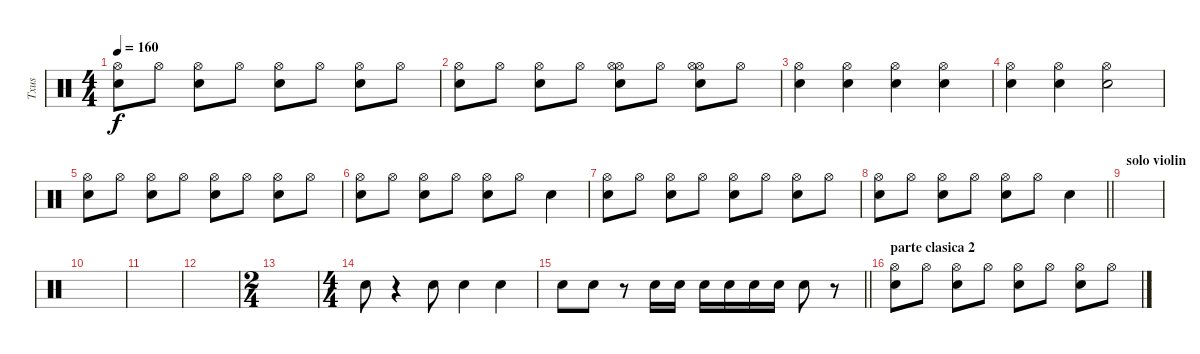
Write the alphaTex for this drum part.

\track ("Txus" "Txus") {instrument percussion}
\staff {score}
\articulation defaults
\ts (4 4)
\tempo 160
\clef neutral
\ks c
("Hi-Hat (open)" "Snare (hit) 2").8{dy f} "Hi-Hat (open)".8 ("Hi-Hat (open)" "Snare (hit) 2").8 "Hi-Hat (open)".8 ("Hi-Hat (open)" "Snare (hit) 2").8 "Hi-Hat (open)".8 ("Hi-Hat (open)" "Snare (hit) 2").8 "Hi-Hat (open)".8 |
("Hi-Hat (open)" "Snare (hit) 2").8 "Hi-Hat (open)".8 ("Hi-Hat (open)" "Snare (hit) 2").8 "Hi-Hat (open)".8 ("Hi-Hat (open)" "Snare (hit) 2" "Hi-Hat (open)").8 "Hi-Hat (open)".8 ("Hi-Hat (open)" "Snare (hit) 2" "Hi-Hat (open)").8 "Hi-Hat (open)".8 |
("Snare (hit) 2" "Hi-Hat (open)").4 ("Snare (hit) 2" "Hi-Hat (open)").4 ("Snare (hit) 2" "Hi-Hat (open)").4 ("Snare (hit) 2" "Hi-Hat (open)").4 |
("Hi-Hat (open)" "Snare (hit) 2").4 ("Hi-Hat (open)" "Snare (hit) 2").4 ("Hi-Hat (open)" "Snare (hit) 2").2 |
("Snare (hit) 2" "Hi-Hat (open)").8 "Hi-Hat (open)".8 ("Snare (hit) 2" "Hi-Hat (open)").8 "Hi-Hat (open)".8 ("Snare (hit) 2" "Hi-Hat (open)").8 "Hi-Hat (open)".8 ("Snare (hit) 2" "Hi-Hat (open)").8 "Hi-Hat (open)".8 |
("Hi-Hat (open)" "Snare (hit) 2").8 "Hi-Hat (open)".8 ("Hi-Hat (open)" "Snare (hit) 2").8 "Hi-Hat (open)".8 ("Hi-Hat (open)" "Snare (hit) 2").8 "Hi-Hat (open)".8 "Snare (hit) 2".4 |
("Snare (hit) 2" "Hi-Hat (open)").8 "Hi-Hat (open)".8 ("Snare (hit) 2" "Hi-Hat (open)").8 "Hi-Hat (open)".8 ("Snare (hit) 2" "Hi-Hat (open)").8 "Hi-Hat (open)".8 ("Snare (hit) 2" "Hi-Hat (open)").8 "Hi-Hat (open)".8 |
\barLineRight lightlight
("Hi-Hat (open)" "Snare (hit) 2").8 "Hi-Hat (open)".8 ("Hi-Hat (open)" "Snare (hit) 2").8 "Hi-Hat (open)".8 ("Hi-Hat (open)" "Snare (hit) 2").8 "Hi-Hat (open)".8 "Snare (hit) 2".4 |
\section ("" "solo violin")
|
|
|
|
\ts (2 4)
|
\ts (4 4)
"Snare (hit) 2".8 r.4 "Snare (hit) 2".8 "Snare (hit) 2".4 "Snare (hit) 2".4 |
\barLineRight lightlight "Snare (hit) 2".8 "Snare (hit) 2".8
r.8 "Snare (hit) 2".16 "Snare (hit) 2".16 "Snare (hit) 2".16 "Snare (hit) 2".16 "Snare (hit) 2".16 "Snare (hit) 2".16 "Snare (hit) 2".8 r.8 |
\section ("" "parte clasica 2")
("Hi-Hat (open)" "Snare (hit) 2").8 "Hi-Hat (open)".8 ("Hi-Hat (open)" "Snare (hit) 2").8 "Hi-Hat (open)".8 ("Hi-Hat (open)" "Snare (hit) 2").8 "Hi-Hat (open)".8 ("Hi-Hat (open)" "Snare (hit) 2").8 "Hi-Hat (open)".8
